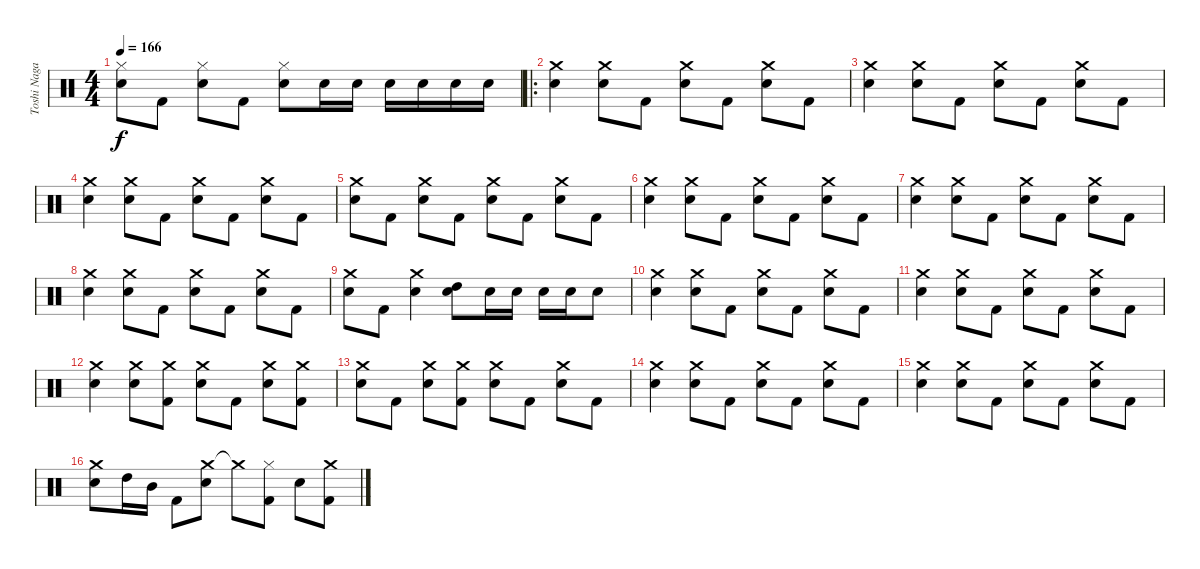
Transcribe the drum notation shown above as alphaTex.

\track ("Toshi Nagai" "Toshi Naga") {instrument percussion}
\staff {score}
\articulation defaults
\ts (4 4)
\tempo 166
\clef neutral
\ks c
("Hi-Hat (closed)" "Electric Snare (hit)").8{dy f} "Kick (hit) 2".8 ("Hi-Hat (closed)" "Electric Snare (hit)").8 "Kick (hit) 2".8 ("Hi-Hat (closed)" "Electric Snare (hit)").8 "Electric Snare (hit)".16 "Electric Snare (hit)".16 "Electric Snare (hit)".16 "Electric Snare (hit)".16 "Electric Snare (hit)".16 "Electric Snare (hit)".16 |
\ro
("Crash medium (hit)" "Electric Snare (hit)").4 ("Crash medium (hit)" "Electric Snare (hit)").8 "Kick (hit) 2".8 ("Crash medium (hit)" "Electric Snare (hit)").8 "Kick (hit) 2".8 ("Crash medium (hit)" "Electric Snare (hit)").8 "Kick (hit) 2".8 |
("Crash medium (hit)" "Electric Snare (hit)").4 ("Crash medium (hit)" "Electric Snare (hit)").8 "Kick (hit) 2".8 ("Crash medium (hit)" "Electric Snare (hit)").8 "Kick (hit) 2".8 ("Crash medium (hit)" "Electric Snare (hit)").8 "Kick (hit) 2".8 |
("Crash medium (hit)" "Electric Snare (hit)").4 ("Crash medium (hit)" "Electric Snare (hit)").8 "Kick (hit) 2".8 ("Crash medium (hit)" "Electric Snare (hit)").8 "Kick (hit) 2".8 ("Crash medium (hit)" "Electric Snare (hit)").8 "Kick (hit) 2".8 |
("Crash medium (hit)" "Electric Snare (hit)").8 "Kick (hit) 2".8 ("Crash medium (hit)" "Electric Snare (hit)").8 "Kick (hit) 2".8 ("Crash medium (hit)" "Electric Snare (hit)").8 "Kick (hit) 2".8 ("Crash medium (hit)" "Electric Snare (hit)").8 "Kick (hit) 2".8 |
("Crash medium (hit)" "Electric Snare (hit)").4 ("Crash medium (hit)" "Electric Snare (hit)").8 "Kick (hit) 2".8 ("Crash medium (hit)" "Electric Snare (hit)").8 "Kick (hit) 2".8 ("Crash medium (hit)" "Electric Snare (hit)").8 "Kick (hit) 2".8 |
("Crash medium (hit)" "Electric Snare (hit)").4 ("Crash medium (hit)" "Electric Snare (hit)").8 "Kick (hit) 2".8 ("Crash medium (hit)" "Electric Snare (hit)").8 "Kick (hit) 2".8 ("Crash medium (hit)" "Electric Snare (hit)").8 "Kick (hit) 2".8 |
("Crash medium (hit)" "Electric Snare (hit)").4 ("Crash medium (hit)" "Electric Snare (hit)").8 "Kick (hit) 2".8 ("Crash medium (hit)" "Electric Snare (hit)").8 "Kick (hit) 2".8 ("Crash medium (hit)" "Electric Snare (hit)").8 "Kick (hit) 2".8 |
("Crash medium (hit)" "Electric Snare (hit)").8 "Kick (hit) 2".8 ("Crash medium (hit)" "Electric Snare (hit)").4 ("High Tom (hit)" "Electric Snare (hit)").8 "Electric Snare (hit)".16 "Electric Snare (hit)".16 "Electric Snare (hit)".16 "Electric Snare (hit)".16 "Electric Snare (hit)".8 |
("Crash medium (hit)" "Electric Snare (hit)").4 ("Crash medium (hit)" "Electric Snare (hit)").8 "Kick (hit) 2".8 ("Crash medium (hit)" "Electric Snare (hit)").8 "Kick (hit) 2".8 ("Crash medium (hit)" "Electric Snare (hit)").8 "Kick (hit) 2".8 |
("Crash medium (hit)" "Electric Snare (hit)").4 ("Crash medium (hit)" "Electric Snare (hit)").8 "Kick (hit) 2".8 ("Crash medium (hit)" "Electric Snare (hit)").8 "Kick (hit) 2".8 ("Crash medium (hit)" "Electric Snare (hit)").8 "Kick (hit) 2".8 |
("Crash medium (hit)" "Electric Snare (hit)").4 ("Crash medium (hit)" "Electric Snare (hit)").8 ("Crash medium (hit)" "Kick (hit) 2").8 ("Crash medium (hit)" "Electric Snare (hit)").8 "Kick (hit) 2".8 ("Crash medium (hit)" "Electric Snare (hit)").8 ("Crash medium (hit)" "Kick (hit) 2").8 |
("Crash medium (hit)" "Electric Snare (hit)").8 "Kick (hit) 2".8 ("Crash medium (hit)" "Electric Snare (hit)").8 ("Crash medium (hit)" "Kick (hit) 2").8 ("Crash medium (hit)" "Electric Snare (hit)").8 "Kick (hit) 2".8 ("Crash medium (hit)" "Electric Snare (hit)").8 "Kick (hit) 2".8 |
("Crash medium (hit)" "Electric Snare (hit)").4 ("Crash medium (hit)" "Electric Snare (hit)").8 "Kick (hit) 2".8 ("Crash medium (hit)" "Electric Snare (hit)").8 "Kick (hit) 2".8 ("Crash medium (hit)" "Electric Snare (hit)").8 "Kick (hit) 2".8 |
("Crash medium (hit)" "Electric Snare (hit)").4 ("Crash medium (hit)" "Electric Snare (hit)").8 "Kick (hit) 2".8 ("Crash medium (hit)" "Electric Snare (hit)").8 "Kick (hit) 2".8 ("Crash medium (hit)" "Electric Snare (hit)").8 "Kick (hit) 2".8 |
("Crash medium (hit)" "Electric Snare (hit)").8 "High Tom (hit)".16 "Mid Tom (hit)".16 "Kick (hit) 2".8 ("Crash medium (hit)" "Electric Snare (hit)").8 "Crash medium (hit)"{t}.8 ("Hi-Hat (closed)" "Kick (hit) 2").8 "Electric Snare (hit)".8 ("Crash medium (hit)" "Kick (hit) 2").8
